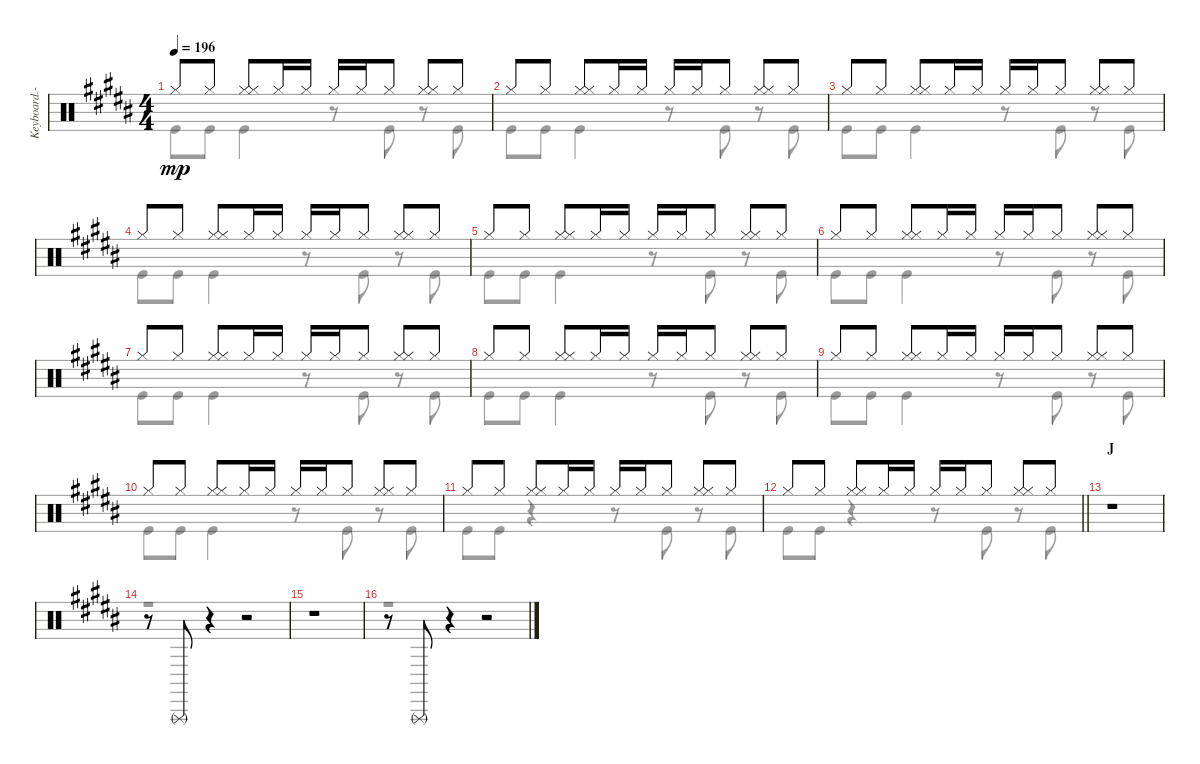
\track ("Keyboard.-III" "Keyboard.-") {instrument percussion}
\staff {score}
\articulation defaults
\voice
\ts (4 4)
\tempo 196
\clef neutral
\ks b "Hi-Hat (closed)".8{dy mp} "Hi-Hat (closed)".8
("Hi-Hat (closed)" "Hi-Hat (closed)").8 "Hi-Hat (closed)".16 "Hi-Hat (closed)".16 "Hi-Hat (closed)".16 "Hi-Hat (closed)".16 "Hi-Hat (closed)".8 ("Hi-Hat (closed)" "Hi-Hat (closed)").8 "Hi-Hat (closed)".8 |
"Hi-Hat (closed)".8 "Hi-Hat (closed)".8 ("Hi-Hat (closed)" "Hi-Hat (closed)").8 "Hi-Hat (closed)".16 "Hi-Hat (closed)".16 "Hi-Hat (closed)".16 "Hi-Hat (closed)".16 "Hi-Hat (closed)".8 ("Hi-Hat (closed)" "Hi-Hat (closed)").8 "Hi-Hat (closed)".8 |
"Hi-Hat (closed)".8 "Hi-Hat (closed)".8 ("Hi-Hat (closed)" "Hi-Hat (closed)").8 "Hi-Hat (closed)".16 "Hi-Hat (closed)".16 "Hi-Hat (closed)".16 "Hi-Hat (closed)".16 "Hi-Hat (closed)".8 ("Hi-Hat (closed)" "Hi-Hat (closed)").8 "Hi-Hat (closed)".8 |
"Hi-Hat (closed)".8 "Hi-Hat (closed)".8 ("Hi-Hat (closed)" "Hi-Hat (closed)").8 "Hi-Hat (closed)".16 "Hi-Hat (closed)".16 "Hi-Hat (closed)".16 "Hi-Hat (closed)".16 "Hi-Hat (closed)".8 ("Hi-Hat (closed)" "Hi-Hat (closed)").8 "Hi-Hat (closed)".8 |
"Hi-Hat (closed)".8 "Hi-Hat (closed)".8 ("Hi-Hat (closed)" "Hi-Hat (closed)").8 "Hi-Hat (closed)".16 "Hi-Hat (closed)".16 "Hi-Hat (closed)".16 "Hi-Hat (closed)".16 "Hi-Hat (closed)".8 ("Hi-Hat (closed)" "Hi-Hat (closed)").8 "Hi-Hat (closed)".8 |
"Hi-Hat (closed)".8 "Hi-Hat (closed)".8 ("Hi-Hat (closed)" "Hi-Hat (closed)").8 "Hi-Hat (closed)".16 "Hi-Hat (closed)".16 "Hi-Hat (closed)".16 "Hi-Hat (closed)".16 "Hi-Hat (closed)".8 ("Hi-Hat (closed)" "Hi-Hat (closed)").8 "Hi-Hat (closed)".8 |
"Hi-Hat (closed)".8 "Hi-Hat (closed)".8 ("Hi-Hat (closed)" "Hi-Hat (closed)").8 "Hi-Hat (closed)".16 "Hi-Hat (closed)".16 "Hi-Hat (closed)".16 "Hi-Hat (closed)".16 "Hi-Hat (closed)".8 ("Hi-Hat (closed)" "Hi-Hat (closed)").8 "Hi-Hat (closed)".8 |
"Hi-Hat (closed)".8 "Hi-Hat (closed)".8 ("Hi-Hat (closed)" "Hi-Hat (closed)").8 "Hi-Hat (closed)".16 "Hi-Hat (closed)".16 "Hi-Hat (closed)".16 "Hi-Hat (closed)".16 "Hi-Hat (closed)".8 ("Hi-Hat (closed)" "Hi-Hat (closed)").8 "Hi-Hat (closed)".8 |
"Hi-Hat (closed)".8 "Hi-Hat (closed)".8 ("Hi-Hat (closed)" "Hi-Hat (closed)").8 "Hi-Hat (closed)".16 "Hi-Hat (closed)".16 "Hi-Hat (closed)".16 "Hi-Hat (closed)".16 "Hi-Hat (closed)".8 ("Hi-Hat (closed)" "Hi-Hat (closed)").8 "Hi-Hat (closed)".8 |
"Hi-Hat (closed)".8 "Hi-Hat (closed)".8 ("Hi-Hat (closed)" "Hi-Hat (closed)").8 "Hi-Hat (closed)".16 "Hi-Hat (closed)".16 "Hi-Hat (closed)".16 "Hi-Hat (closed)".16 "Hi-Hat (closed)".8 ("Hi-Hat (closed)" "Hi-Hat (closed)").8 "Hi-Hat (closed)".8 |
"Hi-Hat (closed)".8 "Hi-Hat (closed)".8 ("Hi-Hat (closed)" "Hi-Hat (closed)").8 "Hi-Hat (closed)".16 "Hi-Hat (closed)".16 "Hi-Hat (closed)".16 "Hi-Hat (closed)".16 "Hi-Hat (closed)".8 ("Hi-Hat (closed)" "Hi-Hat (closed)").8 "Hi-Hat (closed)".8 |
\barLineRight lightlight "Hi-Hat (closed)".8 "Hi-Hat (closed)".8
("Hi-Hat (closed)" "Hi-Hat (closed)").8 "Hi-Hat (closed)".16 "Hi-Hat (closed)".16 "Hi-Hat (closed)".16 "Hi-Hat (closed)".16 "Hi-Hat (closed)".8 ("Hi-Hat (closed)" "Hi-Hat (closed)").8 "Hi-Hat (closed)".8 |
\section ("" "J")
r.1 |
r.8 "Triangle (rnute)".8 r.4 r.2 |
r.1 |
r.8 "Triangle (rnute)".8 r.4 r.2
\voice
\clef neutral
\ottava regular
\simile none
\ks b "Kick (hit)".8{dy mp} "Kick (hit)".8 "Kick (hit)".4
r.8 "Kick (hit)".8 r.8 "Kick (hit)".8 |
"Kick (hit)".8 "Kick (hit)".8 "Kick (hit)".4 r.8 "Kick (hit)".8 r.8 "Kick (hit)".8 |
"Kick (hit)".8 "Kick (hit)".8 "Kick (hit)".4 r.8 "Kick (hit)".8 r.8 "Kick (hit)".8 |
"Kick (hit)".8 "Kick (hit)".8 "Kick (hit)".4 r.8 "Kick (hit)".8 r.8 "Kick (hit)".8 |
"Kick (hit)".8 "Kick (hit)".8 "Kick (hit)".4 r.8 "Kick (hit)".8 r.8 "Kick (hit)".8 |
"Kick (hit)".8 "Kick (hit)".8 "Kick (hit)".4 r.8 "Kick (hit)".8 r.8 "Kick (hit)".8 |
"Kick (hit)".8 "Kick (hit)".8 "Kick (hit)".4 r.8 "Kick (hit)".8 r.8 "Kick (hit)".8 |
"Kick (hit)".8 "Kick (hit)".8 "Kick (hit)".4 r.8 "Kick (hit)".8 r.8 "Kick (hit)".8 |
"Kick (hit)".8 "Kick (hit)".8 "Kick (hit)".4 r.8 "Kick (hit)".8 r.8 "Kick (hit)".8 |
"Kick (hit)".8 "Kick (hit)".8 "Kick (hit)".4 r.8 "Kick (hit)".8 r.8 "Kick (hit)".8 |
"Kick (hit)".8 "Kick (hit)".8 r.4 r.8 "Kick (hit)".8 r.8 "Kick (hit)".8 |
\barLineRight lightlight "Kick (hit)".8 "Kick (hit)".8
r.4 r.8 "Kick (hit)".8 r.8 "Kick (hit)".8 |
|
r.1 |
|
r.1
